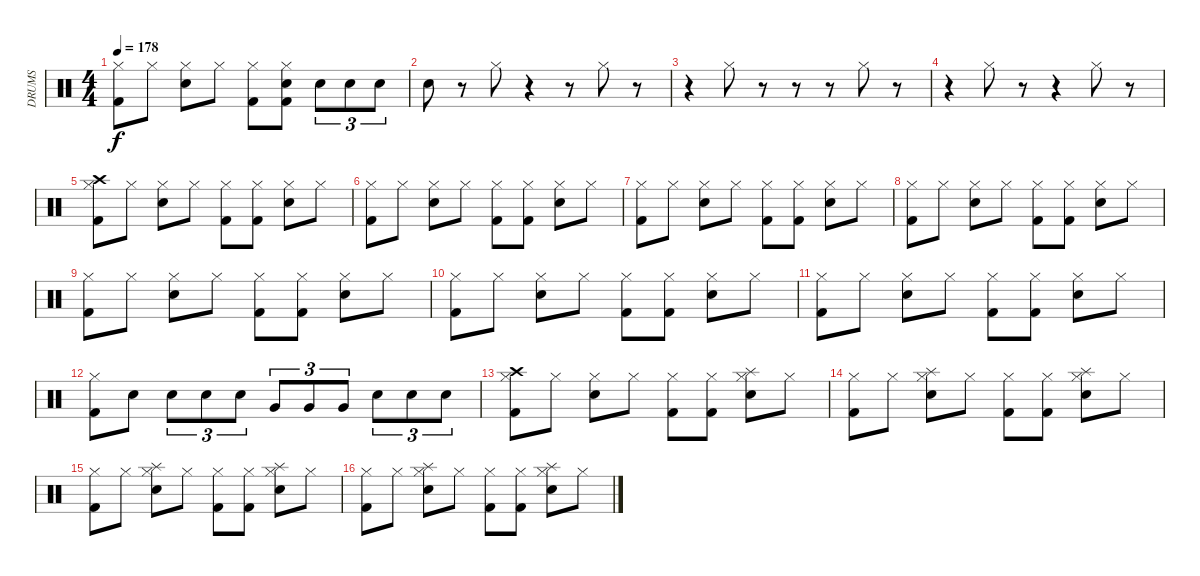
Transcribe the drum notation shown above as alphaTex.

\track ("DRUMS" "DRUMS") {instrument percussion}
\staff {score}
\articulation defaults
\ts (4 4)
\tempo 178
\clef neutral
\ks c
("Hi-Hat (closed)" "Kick (hit) 2").8{dy f} "Hi-Hat (closed)".8 ("Hi-Hat (closed)" "Snare (hit) 2").8 "Hi-Hat (closed)".8 ("Hi-Hat (closed)" "Kick (hit) 2").8 ("Hi-Hat (closed)" "Snare (hit) 2" "Kick (hit) 2").8 "Snare (hit) 2".8{tu (3 2)} "Snare (hit) 2".8{tu (3 2)} "Snare (hit) 2".8{tu (3 2)} |
"Snare (hit) 2".8 r.8 "Hi-Hat (closed)".8 r.4 r.8 "Hi-Hat (closed)".8 r.8 |
r.4 "Hi-Hat (closed)".8 r.8 r.8 r.8 "Hi-Hat (closed)".8 r.8 |
r.4 "Hi-Hat (closed)".8 r.8 r.4 "Hi-Hat (closed)".8 r.8 |
("Hi-Hat (closed)" "Crash high (hit)" "Kick (hit) 2").8 "Hi-Hat (closed)".8 ("Hi-Hat (closed)" "Snare (hit) 2").8 "Hi-Hat (closed)".8 ("Hi-Hat (closed)" "Kick (hit) 2").8 ("Hi-Hat (closed)" "Kick (hit) 2").8 ("Hi-Hat (closed)" "Snare (hit) 2").8 "Hi-Hat (closed)".8 |
("Hi-Hat (closed)" "Kick (hit) 2").8 "Hi-Hat (closed)".8 ("Hi-Hat (closed)" "Snare (hit) 2").8 "Hi-Hat (closed)".8 ("Hi-Hat (closed)" "Kick (hit) 2").8 ("Hi-Hat (closed)" "Kick (hit) 2").8 ("Hi-Hat (closed)" "Snare (hit) 2").8 "Hi-Hat (closed)".8 |
("Hi-Hat (closed)" "Kick (hit) 2").8 "Hi-Hat (closed)".8 ("Hi-Hat (closed)" "Snare (hit) 2").8 "Hi-Hat (closed)".8 ("Hi-Hat (closed)" "Kick (hit) 2").8 ("Hi-Hat (closed)" "Kick (hit) 2").8 ("Hi-Hat (closed)" "Snare (hit) 2").8 "Hi-Hat (closed)".8 |
("Hi-Hat (closed)" "Kick (hit) 2").8 "Hi-Hat (closed)".8 ("Hi-Hat (closed)" "Snare (hit) 2").8 "Hi-Hat (closed)".8 ("Hi-Hat (closed)" "Kick (hit) 2").8 ("Hi-Hat (closed)" "Kick (hit) 2").8 ("Hi-Hat (closed)" "Snare (hit) 2").8 "Hi-Hat (closed)".8 |
("Hi-Hat (closed)" "Kick (hit) 2").8 "Hi-Hat (closed)".8 ("Hi-Hat (closed)" "Snare (hit) 2").8 "Hi-Hat (closed)".8 ("Hi-Hat (closed)" "Kick (hit) 2").8 ("Hi-Hat (closed)" "Kick (hit) 2").8 ("Hi-Hat (closed)" "Snare (hit) 2").8 "Hi-Hat (closed)".8 |
("Hi-Hat (closed)" "Kick (hit) 2").8 "Hi-Hat (closed)".8 ("Hi-Hat (closed)" "Snare (hit) 2").8 "Hi-Hat (closed)".8 ("Hi-Hat (closed)" "Kick (hit) 2").8 ("Hi-Hat (closed)" "Kick (hit) 2").8 ("Hi-Hat (closed)" "Snare (hit) 2").8 "Hi-Hat (closed)".8 |
("Hi-Hat (closed)" "Kick (hit) 2").8 "Hi-Hat (closed)".8 ("Hi-Hat (closed)" "Snare (hit) 2").8 "Hi-Hat (closed)".8 ("Hi-Hat (closed)" "Kick (hit) 2").8 ("Hi-Hat (closed)" "Kick (hit) 2").8 ("Hi-Hat (closed)" "Snare (hit) 2").8 "Hi-Hat (closed)".8 |
("Hi-Hat (closed)" "Kick (hit) 2").8 "Snare (hit) 2".8 "Snare (hit) 2".8{tu (3 2)} "Snare (hit) 2".8{tu (3 2)} "Snare (hit) 2".8{tu (3 2)} "Very Low Tom (hit)".8{tu (3 2)} "Very Low Tom (hit)".8{tu (3 2)} "Very Low Tom (hit)".8{tu (3 2)} "Snare (hit) 2".8{tu (3 2)} "Snare (hit) 2".8{tu (3 2)} "Snare (hit) 2".8{tu (3 2)} |
("Hi-Hat (closed)" "Crash high (hit)" "Kick (hit) 2").8 "Hi-Hat (closed)".8 ("Hi-Hat (closed)" "Snare (hit) 2").8 "Hi-Hat (closed)".8 ("Hi-Hat (closed)" "Kick (hit) 2").8 ("Hi-Hat (closed)" "Kick (hit) 2").8 ("Hi-Hat (closed)" "Splash (hit)" "Snare (hit) 2").8 "Hi-Hat (closed)".8 |
("Hi-Hat (closed)" "Kick (hit) 2").8 "Hi-Hat (closed)".8 ("Hi-Hat (closed)" "Splash (hit)" "Snare (hit) 2").8 "Hi-Hat (closed)".8 ("Hi-Hat (closed)" "Kick (hit) 2").8 ("Hi-Hat (closed)" "Kick (hit) 2").8 ("Hi-Hat (closed)" "Splash (hit)" "Snare (hit) 2").8 "Hi-Hat (closed)".8 |
("Hi-Hat (closed)" "Kick (hit) 2").8 "Hi-Hat (closed)".8 ("Hi-Hat (closed)" "Splash (hit)" "Snare (hit) 2").8 "Hi-Hat (closed)".8 ("Hi-Hat (closed)" "Kick (hit) 2").8 ("Hi-Hat (closed)" "Kick (hit) 2").8 ("Hi-Hat (closed)" "Splash (hit)" "Snare (hit) 2").8 "Hi-Hat (closed)".8 |
("Hi-Hat (closed)" "Kick (hit) 2").8 "Hi-Hat (closed)".8 ("Hi-Hat (closed)" "Splash (hit)" "Snare (hit) 2").8 "Hi-Hat (closed)".8 ("Hi-Hat (closed)" "Kick (hit) 2").8 ("Hi-Hat (closed)" "Kick (hit) 2").8 ("Hi-Hat (closed)" "Splash (hit)" "Snare (hit) 2").8 "Hi-Hat (closed)".8
